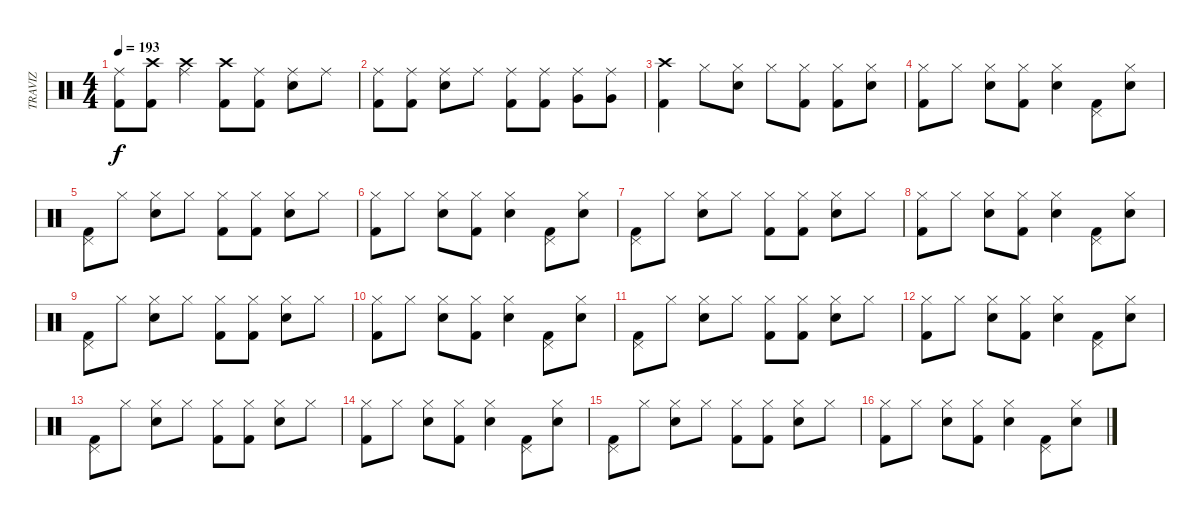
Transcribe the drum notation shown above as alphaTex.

\track ("TRAVIZ" "TRAVIZ") {instrument percussion}
\staff {score}
\articulation defaults
\ts (4 4)
\tempo 193
\clef neutral
\ks c
("Ride (middle)" "Kick (hit) 2").8{dy f} ("Crash high (hit)" "Kick (hit) 2").8 ("Crash high (hit)" "Ride (middle)").4 ("Crash high (hit)" "Kick (hit) 2").8 ("Ride (middle)" "Kick (hit) 2").8 ("Ride (middle)" "Snare (hit) 2").8 "Ride (middle)".8 |
("Ride (middle)" "Kick (hit) 2").8 ("Ride (middle)" "Kick (hit) 2").8 ("Ride (middle)" "Snare (hit) 2").8 "Ride (middle)".8 ("Ride (middle)" "Kick (hit) 2").8 ("Ride (middle)" "Kick (hit) 2").8 ("Ride (middle)" "Very Low Tom (hit)").8 ("Ride (middle)" "Very Low Tom (hit)").8 |
("Crash high (hit)" "Kick (hit) 2").4 "Hi-Hat (closed)".8 ("Hi-Hat (closed)" "Snare (hit) 2").8 "Hi-Hat (closed)".8 ("Hi-Hat (closed)" "Kick (hit) 2").8 ("Hi-Hat (closed)" "Kick (hit) 2").8 ("Hi-Hat (closed)" "Snare (hit) 2").8 |
("Hi-Hat (closed)" "Kick (hit) 2").8 "Hi-Hat (closed)".8 ("Hi-Hat (closed)" "Snare (hit) 2").8 ("Hi-Hat (closed)" "Kick (hit) 2").8 ("Hi-Hat (closed)" "Snare (hit) 2").4 ("Kick (hit) 2" "Pedal Hi-Hat (hit)").8 ("Hi-Hat (closed)" "Snare (hit) 2").8 |
("Kick (hit) 2" "Pedal Hi-Hat (hit)").8 "Hi-Hat (closed)".8 ("Hi-Hat (closed)" "Snare (hit) 2").8 "Hi-Hat (closed)".8 ("Hi-Hat (closed)" "Kick (hit) 2").8 ("Hi-Hat (closed)" "Kick (hit) 2").8 ("Hi-Hat (closed)" "Snare (hit) 2").8 "Hi-Hat (closed)".8 |
("Hi-Hat (closed)" "Kick (hit) 2").8 "Hi-Hat (closed)".8 ("Hi-Hat (closed)" "Snare (hit) 2").8 ("Hi-Hat (closed)" "Kick (hit) 2").8 ("Hi-Hat (closed)" "Snare (hit) 2").4 ("Kick (hit) 2" "Pedal Hi-Hat (hit)").8 ("Hi-Hat (closed)" "Snare (hit) 2").8 |
("Kick (hit) 2" "Pedal Hi-Hat (hit)").8 "Hi-Hat (closed)".8 ("Hi-Hat (closed)" "Snare (hit) 2").8 "Hi-Hat (closed)".8 ("Hi-Hat (closed)" "Kick (hit) 2").8 ("Hi-Hat (closed)" "Kick (hit) 2").8 ("Hi-Hat (closed)" "Snare (hit) 2").8 "Hi-Hat (closed)".8 |
("Hi-Hat (closed)" "Kick (hit) 2").8 "Hi-Hat (closed)".8 ("Hi-Hat (closed)" "Snare (hit) 2").8 ("Hi-Hat (closed)" "Kick (hit) 2").8 ("Hi-Hat (closed)" "Snare (hit) 2").4 ("Kick (hit) 2" "Pedal Hi-Hat (hit)").8 ("Hi-Hat (closed)" "Snare (hit) 2").8 |
("Kick (hit) 2" "Pedal Hi-Hat (hit)").8 "Hi-Hat (closed)".8 ("Hi-Hat (closed)" "Snare (hit) 2").8 "Hi-Hat (closed)".8 ("Hi-Hat (closed)" "Kick (hit) 2").8 ("Hi-Hat (closed)" "Kick (hit) 2").8 ("Hi-Hat (closed)" "Snare (hit) 2").8 "Hi-Hat (closed)".8 |
("Hi-Hat (closed)" "Kick (hit) 2").8 "Hi-Hat (closed)".8 ("Hi-Hat (closed)" "Snare (hit) 2").8 ("Hi-Hat (closed)" "Kick (hit) 2").8 ("Hi-Hat (closed)" "Snare (hit) 2").4 ("Kick (hit) 2" "Pedal Hi-Hat (hit)").8 ("Hi-Hat (closed)" "Snare (hit) 2").8 |
("Kick (hit) 2" "Pedal Hi-Hat (hit)").8 "Hi-Hat (closed)".8 ("Hi-Hat (closed)" "Snare (hit) 2").8 "Hi-Hat (closed)".8 ("Hi-Hat (closed)" "Kick (hit) 2").8 ("Hi-Hat (closed)" "Kick (hit) 2").8 ("Hi-Hat (closed)" "Snare (hit) 2").8 "Hi-Hat (closed)".8 |
("Hi-Hat (closed)" "Kick (hit) 2").8 "Hi-Hat (closed)".8 ("Hi-Hat (closed)" "Snare (hit) 2").8 ("Hi-Hat (closed)" "Kick (hit) 2").8 ("Hi-Hat (closed)" "Snare (hit) 2").4 ("Kick (hit) 2" "Pedal Hi-Hat (hit)").8 ("Hi-Hat (closed)" "Snare (hit) 2").8 |
("Kick (hit) 2" "Pedal Hi-Hat (hit)").8 "Hi-Hat (closed)".8 ("Hi-Hat (closed)" "Snare (hit) 2").8 "Hi-Hat (closed)".8 ("Hi-Hat (closed)" "Kick (hit) 2").8 ("Hi-Hat (closed)" "Kick (hit) 2").8 ("Hi-Hat (closed)" "Snare (hit) 2").8 "Hi-Hat (closed)".8 |
("Hi-Hat (closed)" "Kick (hit) 2").8 "Hi-Hat (closed)".8 ("Hi-Hat (closed)" "Snare (hit) 2").8 ("Hi-Hat (closed)" "Kick (hit) 2").8 ("Hi-Hat (closed)" "Snare (hit) 2").4 ("Kick (hit) 2" "Pedal Hi-Hat (hit)").8 ("Hi-Hat (closed)" "Snare (hit) 2").8 |
("Kick (hit) 2" "Pedal Hi-Hat (hit)").8 "Hi-Hat (closed)".8 ("Hi-Hat (closed)" "Snare (hit) 2").8 "Hi-Hat (closed)".8 ("Hi-Hat (closed)" "Kick (hit) 2").8 ("Hi-Hat (closed)" "Kick (hit) 2").8 ("Hi-Hat (closed)" "Snare (hit) 2").8 "Hi-Hat (closed)".8 |
("Hi-Hat (closed)" "Kick (hit) 2").8 "Hi-Hat (closed)".8 ("Hi-Hat (closed)" "Snare (hit) 2").8 ("Hi-Hat (closed)" "Kick (hit) 2").8 ("Hi-Hat (closed)" "Snare (hit) 2").4 ("Kick (hit) 2" "Pedal Hi-Hat (hit)").8 ("Hi-Hat (closed)" "Snare (hit) 2").8
